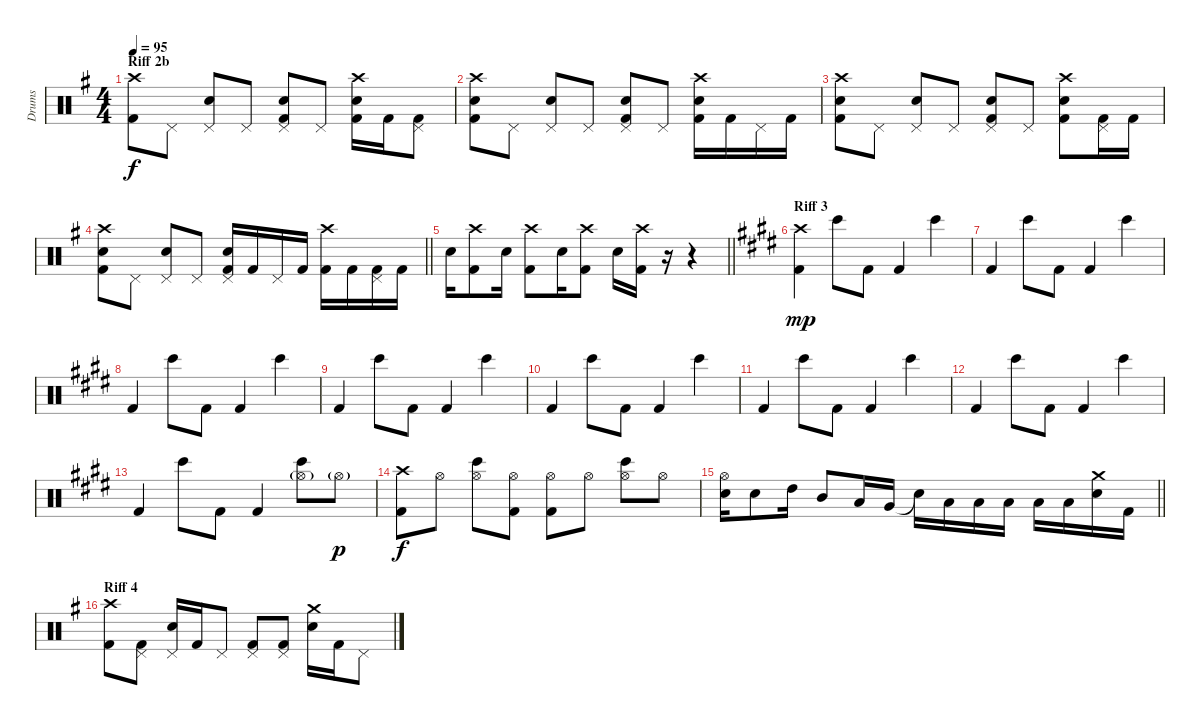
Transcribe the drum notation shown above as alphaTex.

\track ("Drums" "Drums") {instrument percussion}
\staff {score}
\articulation defaults
\ts (4 4)
\section ("" "Riff 2b")
\tempo 95
\clef neutral
\ks eminor
("Crash high (hit)" "Kick (hit) 2").8{dy f} "Pedal Hi-Hat (hit)".8 ("Pedal Hi-Hat (hit)" "Electric Snare (hit)").8 "Pedal Hi-Hat (hit)".8 ("Pedal Hi-Hat (hit)" "Electric Snare (hit)" "Kick (hit) 2").8 "Pedal Hi-Hat (hit)".8 ("Crash high (hit)" "Electric Snare (hit)" "Kick (hit) 2").16 "Kick (hit) 2".16 ("Pedal Hi-Hat (hit)" "Kick (hit) 2").8 |
("Crash high (hit)" "Electric Snare (hit)" "Kick (hit) 2").8 "Pedal Hi-Hat (hit)".8 ("Pedal Hi-Hat (hit)" "Electric Snare (hit)").8 "Pedal Hi-Hat (hit)".8 ("Pedal Hi-Hat (hit)" "Electric Snare (hit)" "Kick (hit) 2").8 "Pedal Hi-Hat (hit)".8 ("Crash high (hit)" "Electric Snare (hit)" "Kick (hit) 2").16 "Kick (hit) 2".16 "Pedal Hi-Hat (hit)".16 "Kick (hit) 2".16 |
("Crash high (hit)" "Electric Snare (hit)" "Kick (hit) 2").8 "Pedal Hi-Hat (hit)".8 ("Pedal Hi-Hat (hit)" "Electric Snare (hit)").8 "Pedal Hi-Hat (hit)".8 ("Pedal Hi-Hat (hit)" "Electric Snare (hit)" "Kick (hit) 2").8 "Pedal Hi-Hat (hit)".8 ("Crash high (hit)" "Electric Snare (hit)" "Kick (hit) 2").8 ("Pedal Hi-Hat (hit)" "Kick (hit) 2").16 "Kick (hit) 2".16 |
\barLineRight lightlight
("Crash high (hit)" "Electric Snare (hit)" "Kick (hit) 2").8 "Pedal Hi-Hat (hit)".8 ("Pedal Hi-Hat (hit)" "Electric Snare (hit)").8 "Pedal Hi-Hat (hit)".8 ("Pedal Hi-Hat (hit)" "Electric Snare (hit)" "Kick (hit) 2").16 "Kick (hit) 2".16 "Pedal Hi-Hat (hit)".16 "Kick (hit) 2".16 ("Crash high (hit)" "Kick (hit) 2").16 "Kick (hit) 2".16 ("Pedal Hi-Hat (hit)" "Kick (hit) 2").16 "Kick (hit) 2".16 |
\barLineRight lightlight "Electric Snare (hit)".16
("Crash high (hit)" "Kick (hit) 2").8 "Electric Snare (hit)".16 ("Crash high (hit)" "Kick (hit) 2").8 "Electric Snare (hit)".16 ("Crash high (hit)" "Kick (hit) 2").8 "Electric Snare (hit)".16 ("Crash high (hit)" "Kick (hit) 2").16 r.16{volume 0} r.4 |
\section ("" "Riff 3")
\ks c#minor
("Crash high (hit)" "Kick (hit) 2").4{dy mp volume 13} "Bongo High (hit)".8 "Kick (hit) 2".8 "Kick (hit) 2".4 "Bongo High (hit)".4 |
"Kick (hit) 2".4 "Bongo High (hit)".8 "Kick (hit) 2".8 "Kick (hit) 2".4 "Bongo High (hit)".4 |
"Kick (hit) 2".4 "Bongo High (hit)".8 "Kick (hit) 2".8 "Kick (hit) 2".4 "Bongo High (hit)".4 |
"Kick (hit) 2".4 "Bongo High (hit)".8 "Kick (hit) 2".8 "Kick (hit) 2".4 "Bongo High (hit)".4 |
"Kick (hit) 2".4 "Bongo High (hit)".8 "Kick (hit) 2".8 "Kick (hit) 2".4 "Bongo High (hit)".4 |
"Kick (hit) 2".4 "Bongo High (hit)".8 "Kick (hit) 2".8 "Kick (hit) 2".4 "Bongo High (hit)".4 |
"Kick (hit) 2".4 "Bongo High (hit)".8 "Kick (hit) 2".8 "Kick (hit) 2".4 "Bongo High (hit)".4 |
"Kick (hit) 2".4 "Bongo High (hit)".8 "Kick (hit) 2".8 "Kick (hit) 2".4 ("Hi-Hat (open)"{g} "Bongo High (hit)").8 "Hi-Hat (open)"{g}.8{dy p} |
("Crash high (hit)" "Kick (hit) 2").8{dy f} "Hi-Hat (open)".8 ("Hi-Hat (open)" "Bongo High (hit)").8 ("Hi-Hat (open)" "Kick (hit) 2").8 ("Hi-Hat (open)" "Kick (hit) 2").8 "Hi-Hat (open)".8 ("Hi-Hat (open)" "Bongo High (hit)").8 "Hi-Hat (open)".8 |
\barLineRight lightlight
("Hi-Hat (open)" "Electric Snare (hit)").16 "Electric Snare (hit)".8 "High Tom (hit)".16 "Mid Tom (hit)".8 "Low Tom (hit)".16 "Very Low Tom (hit)".16 "Snare (hit)"{t}.16 "Low Floor Tom (hit)".16 "Low Floor Tom (hit)".16 "Low Floor Tom (hit)".16 "Low Floor Tom (hit)".16 "Low Floor Tom (hit)".16 ("Crash medium (hit)" "Electric Snare (hit)").16 "Kick (hit) 2".16 |
\section ("" "Riff 4")
\ks eminor
("Crash high (hit)" "Kick (hit) 2").8 ("Pedal Hi-Hat (hit)" "Kick (hit) 2").8 ("Pedal Hi-Hat (hit)" "Electric Snare (hit)").16 "Kick (hit) 2".16 "Pedal Hi-Hat (hit)".8 ("Pedal Hi-Hat (hit)" "Kick (hit) 2").8 ("Pedal Hi-Hat (hit)" "Kick (hit) 2").8 ("Crash medium (hit)" "Electric Snare (hit)").16 "Kick (hit) 2".16 "Pedal Hi-Hat (hit)".8
